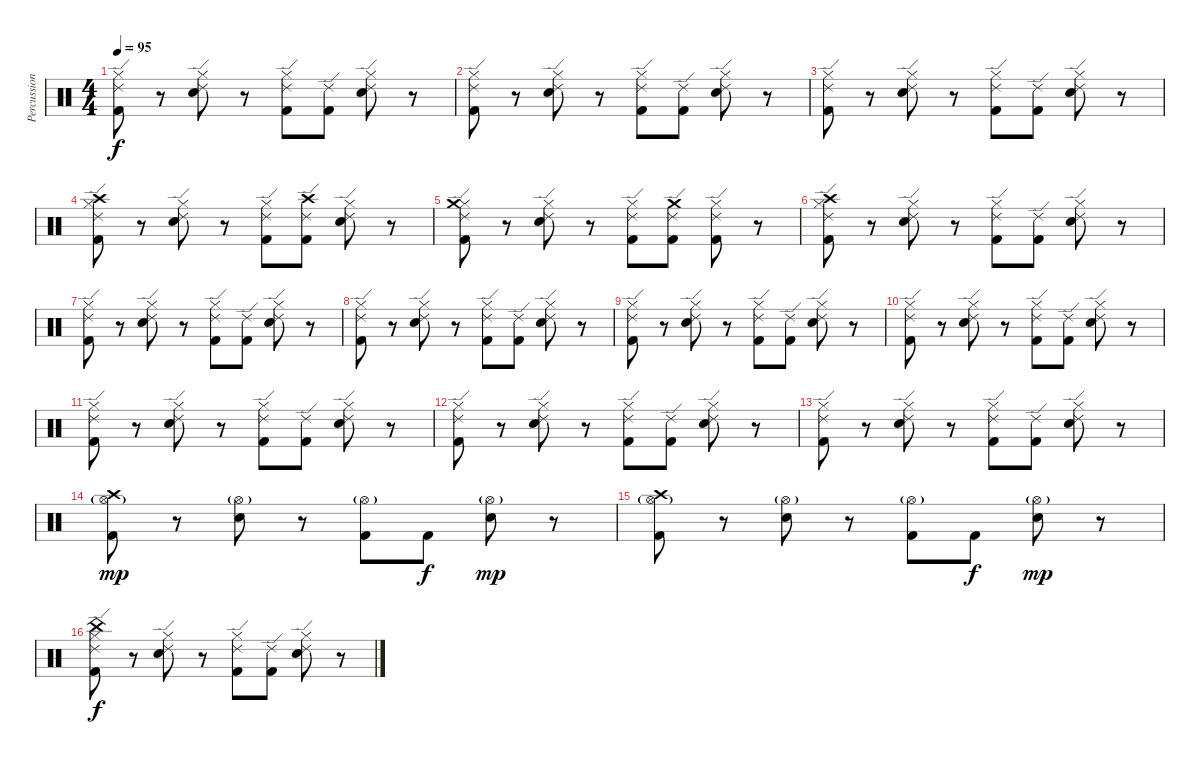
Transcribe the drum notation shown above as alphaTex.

\track ("Percussions" "Percussion") {instrument percussion}
\staff {score}
\articulation defaults
\ts (4 4)
\tempo 95
\clef neutral
\ks c
("Hi-Hat (closed)" "Ride (edge) 2" "Kick (hit) 2").8{dy f} r.8 ("Hi-Hat (closed)" "Ride (edge) 2" "Snare (hit) 2").8 r.8 ("Hi-Hat (closed)" "Ride (edge) 2" "Kick (hit) 2").8 ("Ride (edge) 2" "Kick (hit) 2").8 ("Hi-Hat (closed)" "Ride (edge) 2" "Snare (hit) 2").8 r.8 |
("Hi-Hat (closed)" "Ride (edge) 2" "Kick (hit) 2").8 r.8 ("Hi-Hat (closed)" "Ride (edge) 2" "Snare (hit) 2").8 r.8 ("Hi-Hat (closed)" "Ride (edge) 2" "Kick (hit) 2").8 ("Ride (edge) 2" "Kick (hit) 2").8 ("Hi-Hat (closed)" "Ride (edge) 2" "Snare (hit) 2").8 r.8 |
("Hi-Hat (closed)" "Ride (edge) 2" "Kick (hit) 2").8 r.8 ("Hi-Hat (closed)" "Ride (edge) 2" "Snare (hit) 2").8 r.8 ("Hi-Hat (closed)" "Ride (edge) 2" "Kick (hit) 2").8 ("Ride (edge) 2" "Kick (hit) 2").8 ("Hi-Hat (closed)" "Ride (edge) 2" "Snare (hit) 2").8 r.8 |
("Hi-Hat (closed)" "Ride (edge) 2" "Crash high (hit)" "Kick (hit) 2").8 r.8 ("Hi-Hat (closed)" "Ride (edge) 2" "Snare (hit) 2").8 r.8 ("Hi-Hat (closed)" "Ride (edge) 2" "Kick (hit) 2").8 ("Ride (edge) 2" "Crash high (hit)" "Kick (hit) 2").8 ("Hi-Hat (closed)" "Ride (edge) 2" "Snare (hit) 2").8 r.8 |
("Hi-Hat (closed)" "Ride (edge) 2" "Crash medium (hit)" "Kick (hit) 2").8 r.8 ("Hi-Hat (closed)" "Ride (edge) 2" "Snare (hit) 2").8 r.8 ("Hi-Hat (closed)" "Ride (edge) 2" "Kick (hit) 2").8 ("Ride (edge) 2" "Crash medium (hit)" "Kick (hit) 2").8 ("Hi-Hat (closed)" "Ride (edge) 2" "Kick (hit) 2").8 r.8 |
("Hi-Hat (closed)" "Crash high (hit)" "Ride (edge) 2" "Kick (hit) 2").8 r.8 ("Hi-Hat (closed)" "Ride (edge) 2" "Snare (hit) 2").8 r.8 ("Hi-Hat (closed)" "Ride (edge) 2" "Kick (hit) 2").8 ("Ride (edge) 2" "Kick (hit) 2").8 ("Hi-Hat (closed)" "Ride (edge) 2" "Snare (hit) 2").8 r.8 |
("Hi-Hat (closed)" "Ride (edge) 2" "Kick (hit) 2").8 r.8 ("Hi-Hat (closed)" "Ride (edge) 2" "Snare (hit) 2").8 r.8 ("Hi-Hat (closed)" "Ride (edge) 2" "Kick (hit) 2").8 ("Ride (edge) 2" "Kick (hit) 2").8 ("Hi-Hat (closed)" "Ride (edge) 2" "Snare (hit) 2").8 r.8 |
("Hi-Hat (closed)" "Ride (edge) 2" "Kick (hit) 2").8 r.8 ("Hi-Hat (closed)" "Ride (edge) 2" "Snare (hit) 2").8 r.8 ("Hi-Hat (closed)" "Ride (edge) 2" "Kick (hit) 2").8 ("Ride (edge) 2" "Kick (hit) 2").8 ("Hi-Hat (closed)" "Ride (edge) 2" "Snare (hit) 2").8 r.8 |
("Hi-Hat (closed)" "Ride (edge) 2" "Kick (hit) 2").8 r.8 ("Hi-Hat (closed)" "Ride (edge) 2" "Snare (hit) 2").8 r.8 ("Hi-Hat (closed)" "Ride (edge) 2" "Kick (hit) 2").8 ("Ride (edge) 2" "Kick (hit) 2").8 ("Hi-Hat (closed)" "Ride (edge) 2" "Snare (hit) 2").8 r.8 |
("Hi-Hat (closed)" "Ride (edge) 2" "Kick (hit) 2").8 r.8 ("Hi-Hat (closed)" "Ride (edge) 2" "Snare (hit) 2").8 r.8 ("Hi-Hat (closed)" "Ride (edge) 2" "Kick (hit) 2").8 ("Ride (edge) 2" "Kick (hit) 2").8 ("Hi-Hat (closed)" "Ride (edge) 2" "Snare (hit) 2").8 r.8 |
("Hi-Hat (closed)" "Ride (edge) 2" "Kick (hit) 2").8 r.8 ("Hi-Hat (closed)" "Ride (edge) 2" "Snare (hit) 2").8 r.8 ("Hi-Hat (closed)" "Ride (edge) 2" "Kick (hit) 2").8 ("Ride (edge) 2" "Kick (hit) 2").8 ("Hi-Hat (closed)" "Ride (edge) 2" "Snare (hit) 2").8 r.8 |
("Hi-Hat (closed)" "Ride (edge) 2" "Kick (hit) 2").8 r.8 ("Hi-Hat (closed)" "Ride (edge) 2" "Snare (hit) 2").8 r.8 ("Hi-Hat (closed)" "Ride (edge) 2" "Kick (hit) 2").8 ("Ride (edge) 2" "Kick (hit) 2").8 ("Hi-Hat (closed)" "Ride (edge) 2" "Snare (hit) 2").8 r.8 |
("Hi-Hat (closed)" "Ride (edge) 2" "Kick (hit) 2").8 r.8 ("Hi-Hat (closed)" "Ride (edge) 2" "Snare (hit) 2").8 r.8 ("Hi-Hat (closed)" "Ride (edge) 2" "Kick (hit) 2").8 ("Ride (edge) 2" "Kick (hit) 2").8 ("Hi-Hat (closed)" "Ride (edge) 2" "Snare (hit) 2").8 r.8 |
("Hi-Hat (open)"{g} "Crash high (hit)" "Kick (hit) 2").8{dy mp} r.8 ("Hi-Hat (open)"{g} "Snare (hit) 2").8 r.8 ("Hi-Hat (open)"{g} "Kick (hit) 2").8 "Kick (hit) 2".8{dy f} ("Hi-Hat (open)"{g} "Snare (hit) 2").8{dy mp} r.8 |
("Hi-Hat (open)"{g} "Crash high (hit)" "Kick (hit) 2").8 r.8 ("Hi-Hat (open)"{g} "Snare (hit) 2").8 r.8 ("Hi-Hat (open)"{g} "Kick (hit) 2").8 "Kick (hit) 2".8{dy f} ("Hi-Hat (open)"{g} "Snare (hit) 2").8{dy mp} r.8 |
("Hi-Hat (closed)" "Ride (edge) 2" "China (hit)" "Kick (hit) 2").8{dy f} r.8 ("Hi-Hat (closed)" "Ride (edge) 2" "Snare (hit) 2").8 r.8 ("Hi-Hat (closed)" "Ride (edge) 2" "Kick (hit) 2").8 ("Ride (edge) 2" "Kick (hit) 2").8 ("Hi-Hat (closed)" "Ride (edge) 2" "Snare (hit) 2").8 r.8
